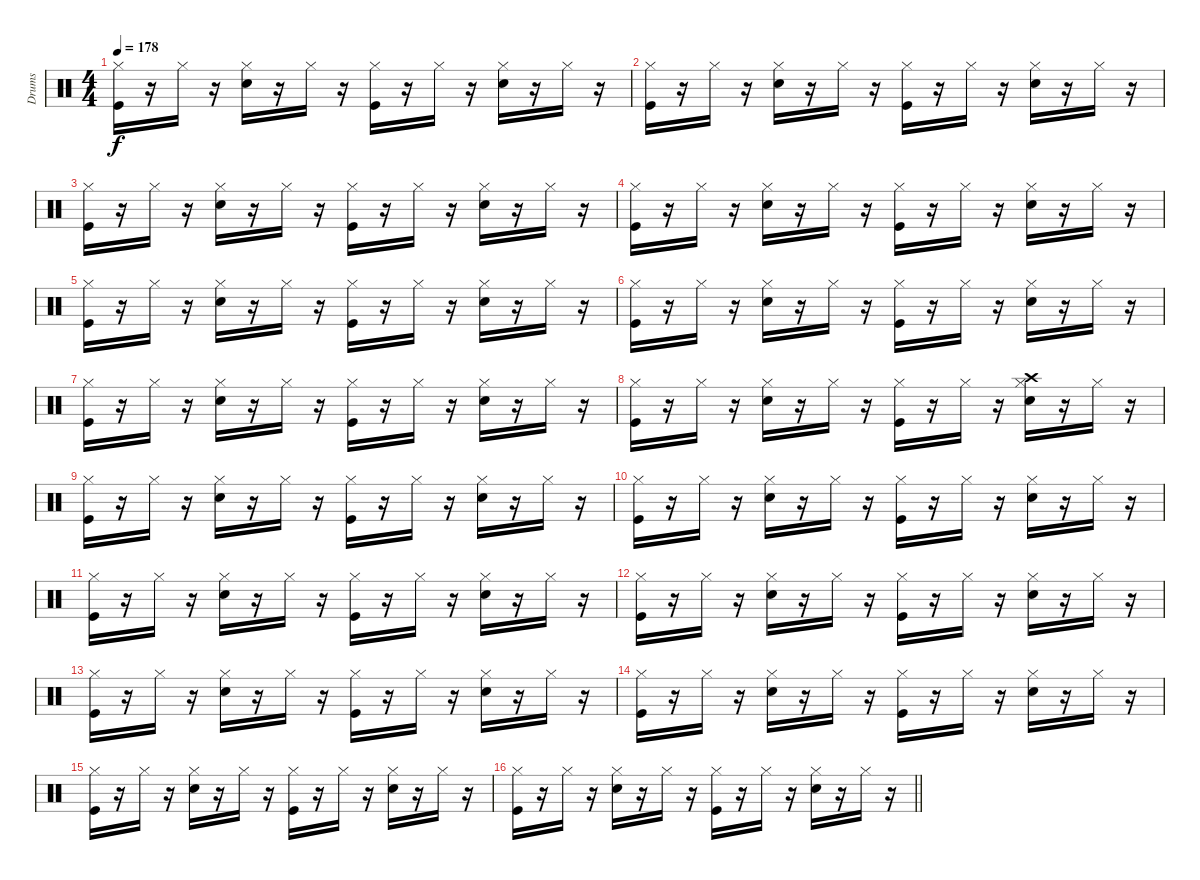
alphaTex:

\track ("Drums               " "Drums     ") {instrument percussion}
\staff {score}
\articulation defaults
\ts (4 4)
\tempo 178
\clef neutral
\ks c
("Kick (hit)" "Hi-Hat (closed)").16{dy f} r.16 "Hi-Hat (closed)".16 r.16 ("Snare (hit) 2" "Hi-Hat (closed)").16 r.16 "Hi-Hat (closed)".16 r.16 ("Kick (hit)" "Hi-Hat (closed)").16 r.16 "Hi-Hat (closed)".16 r.16 ("Snare (hit) 2" "Hi-Hat (closed)").16 r.16 "Hi-Hat (closed)".16 r.16 |
("Kick (hit)" "Hi-Hat (closed)").16 r.16 "Hi-Hat (closed)".16 r.16 ("Snare (hit) 2" "Hi-Hat (closed)").16 r.16 "Hi-Hat (closed)".16 r.16 ("Kick (hit)" "Hi-Hat (closed)").16 r.16 "Hi-Hat (closed)".16 r.16 ("Snare (hit) 2" "Hi-Hat (closed)").16 r.16 "Hi-Hat (closed)".16 r.16 |
("Kick (hit)" "Hi-Hat (closed)").16 r.16 "Hi-Hat (closed)".16 r.16 ("Snare (hit) 2" "Hi-Hat (closed)").16 r.16 "Hi-Hat (closed)".16 r.16 ("Kick (hit)" "Hi-Hat (closed)").16 r.16 "Hi-Hat (closed)".16 r.16 ("Snare (hit) 2" "Hi-Hat (closed)").16 r.16 "Hi-Hat (closed)".16 r.16 |
("Kick (hit)" "Hi-Hat (closed)").16 r.16 "Hi-Hat (closed)".16 r.16 ("Snare (hit) 2" "Hi-Hat (closed)").16 r.16 "Hi-Hat (closed)".16 r.16 ("Kick (hit)" "Hi-Hat (closed)").16 r.16 "Hi-Hat (closed)".16 r.16 ("Snare (hit) 2" "Hi-Hat (closed)").16 r.16 "Hi-Hat (closed)".16 r.16 |
("Kick (hit)" "Hi-Hat (closed)").16 r.16 "Hi-Hat (closed)".16 r.16 ("Snare (hit) 2" "Hi-Hat (closed)").16 r.16 "Hi-Hat (closed)".16 r.16 ("Kick (hit)" "Hi-Hat (closed)").16 r.16 "Hi-Hat (closed)".16 r.16 ("Snare (hit) 2" "Hi-Hat (closed)").16 r.16 "Hi-Hat (closed)".16 r.16 |
("Kick (hit)" "Hi-Hat (closed)").16 r.16 "Hi-Hat (closed)".16 r.16 ("Snare (hit) 2" "Hi-Hat (closed)").16 r.16 "Hi-Hat (closed)".16 r.16 ("Kick (hit)" "Hi-Hat (closed)").16 r.16 "Hi-Hat (closed)".16 r.16 ("Snare (hit) 2" "Hi-Hat (closed)").16 r.16 "Hi-Hat (closed)".16 r.16 |
("Kick (hit)" "Hi-Hat (closed)").16 r.16 "Hi-Hat (closed)".16 r.16 ("Snare (hit) 2" "Hi-Hat (closed)").16 r.16 "Hi-Hat (closed)".16 r.16 ("Kick (hit)" "Hi-Hat (closed)").16 r.16 "Hi-Hat (closed)".16 r.16 ("Snare (hit) 2" "Hi-Hat (closed)").16 r.16 "Hi-Hat (closed)".16 r.16 |
("Kick (hit)" "Hi-Hat (closed)").16 r.16 "Hi-Hat (closed)".16 r.16 ("Snare (hit) 2" "Hi-Hat (closed)").16 r.16 "Hi-Hat (closed)".16 r.16 ("Kick (hit)" "Hi-Hat (closed)").16 r.16 "Hi-Hat (closed)".16 r.16 ("Snare (hit) 2" "Hi-Hat (closed)" "Crash high (hit)").16 r.16 "Hi-Hat (closed)".16 r.16 |
("Kick (hit)" "Hi-Hat (closed)").16 r.16 "Hi-Hat (closed)".16 r.16 ("Snare (hit) 2" "Hi-Hat (closed)").16 r.16 "Hi-Hat (closed)".16 r.16 ("Kick (hit)" "Hi-Hat (closed)").16 r.16 "Hi-Hat (closed)".16 r.16 ("Snare (hit) 2" "Hi-Hat (closed)").16 r.16 "Hi-Hat (closed)".16 r.16 |
("Kick (hit)" "Hi-Hat (closed)").16 r.16 "Hi-Hat (closed)".16 r.16 ("Snare (hit) 2" "Hi-Hat (closed)").16 r.16 "Hi-Hat (closed)".16 r.16 ("Kick (hit)" "Hi-Hat (closed)").16 r.16 "Hi-Hat (closed)".16 r.16 ("Snare (hit) 2" "Hi-Hat (closed)").16 r.16 "Hi-Hat (closed)".16 r.16 |
("Kick (hit)" "Hi-Hat (closed)").16 r.16 "Hi-Hat (closed)".16 r.16 ("Snare (hit) 2" "Hi-Hat (closed)").16 r.16 "Hi-Hat (closed)".16 r.16 ("Kick (hit)" "Hi-Hat (closed)").16 r.16 "Hi-Hat (closed)".16 r.16 ("Snare (hit) 2" "Hi-Hat (closed)").16 r.16 "Hi-Hat (closed)".16 r.16 |
("Kick (hit)" "Hi-Hat (closed)").16 r.16 "Hi-Hat (closed)".16 r.16 ("Snare (hit) 2" "Hi-Hat (closed)").16 r.16 "Hi-Hat (closed)".16 r.16 ("Kick (hit)" "Hi-Hat (closed)").16 r.16 "Hi-Hat (closed)".16 r.16 ("Snare (hit) 2" "Hi-Hat (closed)").16 r.16 "Hi-Hat (closed)".16 r.16 |
("Kick (hit)" "Hi-Hat (closed)").16 r.16 "Hi-Hat (closed)".16 r.16 ("Snare (hit) 2" "Hi-Hat (closed)").16 r.16 "Hi-Hat (closed)".16 r.16 ("Kick (hit)" "Hi-Hat (closed)").16 r.16 "Hi-Hat (closed)".16 r.16 ("Snare (hit) 2" "Hi-Hat (closed)").16 r.16 "Hi-Hat (closed)".16 r.16 |
("Kick (hit)" "Hi-Hat (closed)").16 r.16 "Hi-Hat (closed)".16 r.16 ("Snare (hit) 2" "Hi-Hat (closed)").16 r.16 "Hi-Hat (closed)".16 r.16 ("Kick (hit)" "Hi-Hat (closed)").16 r.16 "Hi-Hat (closed)".16 r.16 ("Snare (hit) 2" "Hi-Hat (closed)").16 r.16 "Hi-Hat (closed)".16 r.16 |
("Kick (hit)" "Hi-Hat (closed)").16 r.16 "Hi-Hat (closed)".16 r.16 ("Snare (hit) 2" "Hi-Hat (closed)").16 r.16 "Hi-Hat (closed)".16 r.16 ("Kick (hit)" "Hi-Hat (closed)").16 r.16 "Hi-Hat (closed)".16 r.16 ("Snare (hit) 2" "Hi-Hat (closed)").16 r.16 "Hi-Hat (closed)".16 r.16 |
\barLineRight lightlight
("Kick (hit)" "Hi-Hat (closed)").16 r.16 "Hi-Hat (closed)".16 r.16 ("Snare (hit) 2" "Hi-Hat (closed)").16 r.16 "Hi-Hat (closed)".16 r.16 ("Kick (hit)" "Hi-Hat (closed)").16 r.16 "Hi-Hat (closed)".16 r.16 ("Snare (hit) 2" "Hi-Hat (closed)").16 r.16 "Hi-Hat (closed)".16 r.16
